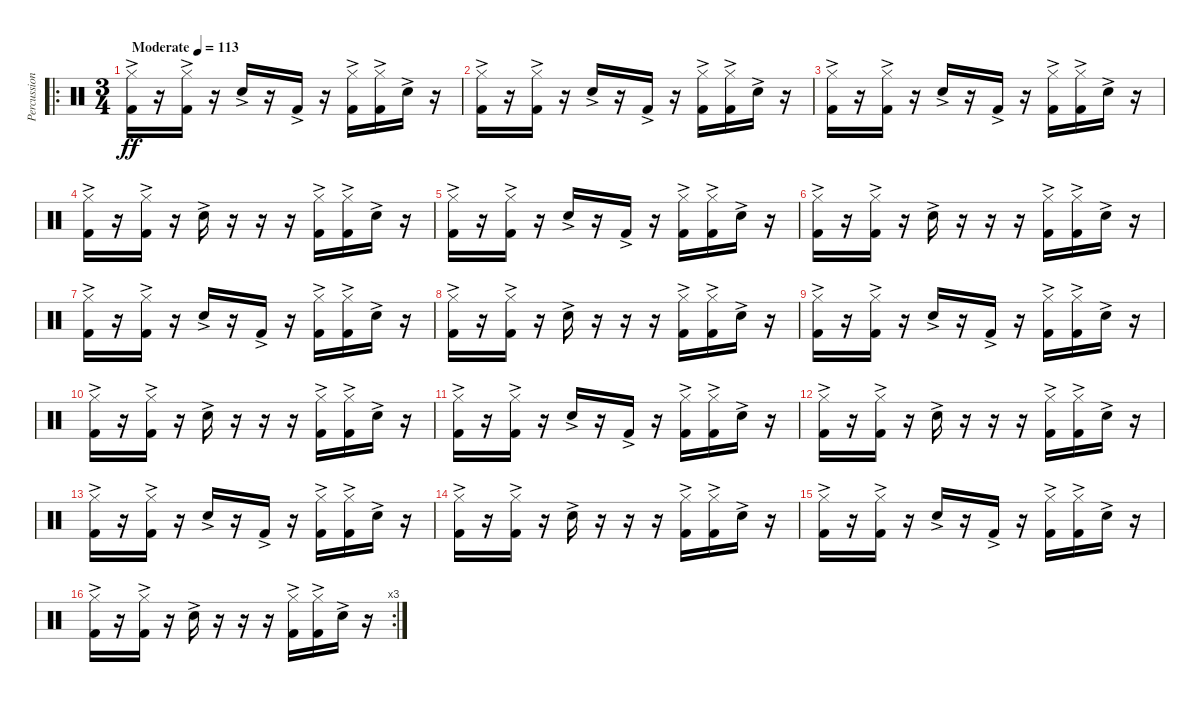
\track ("Percussion" "Percussion") {instrument percussion}
\staff {score}
\articulation defaults
\ro
\ts (3 4)
\tempo (113 "Moderate")
\clef neutral
\ks c
("Hi-Hat (closed)"{ac} "Kick (hit) 2"{ac}).16{dy ff} r.16 ("Hi-Hat (closed)"{ac} "Kick (hit) 2"{ac}).16 r.16 "Snare (hit) 2"{ac}.16 r.16 "Kick (hit) 2"{ac}.16 r.16 ("Hi-Hat (closed)"{ac} "Kick (hit) 2"{ac}).16 ("Hi-Hat (closed)"{ac} "Kick (hit) 2"{ac}).16 "Snare (hit) 2"{ac}.16 r.16 |
("Hi-Hat (closed)"{ac} "Kick (hit) 2"{ac}).16 r.16 ("Hi-Hat (closed)"{ac} "Kick (hit) 2"{ac}).16 r.16 "Snare (hit) 2"{ac}.16 r.16 "Kick (hit) 2"{ac}.16 r.16 ("Hi-Hat (closed)"{ac} "Kick (hit) 2"{ac}).16 ("Hi-Hat (closed)"{ac} "Kick (hit) 2"{ac}).16 "Snare (hit) 2"{ac}.16 r.16 |
("Hi-Hat (closed)"{ac} "Kick (hit) 2"{ac}).16 r.16 ("Hi-Hat (closed)"{ac} "Kick (hit) 2"{ac}).16 r.16 "Snare (hit) 2"{ac}.16 r.16 "Kick (hit) 2"{ac}.16 r.16 ("Hi-Hat (closed)"{ac} "Kick (hit) 2"{ac}).16 ("Hi-Hat (closed)"{ac} "Kick (hit) 2"{ac}).16 "Snare (hit) 2"{ac}.16 r.16 |
("Hi-Hat (closed)"{ac} "Kick (hit) 2"{ac}).16 r.16 ("Hi-Hat (closed)"{ac} "Kick (hit) 2"{ac}).16 r.16 "Snare (hit) 2"{ac}.16 r.16 r.16 r.16 ("Hi-Hat (closed)"{ac} "Kick (hit) 2"{ac}).16 ("Hi-Hat (closed)"{ac} "Kick (hit) 2"{ac}).16 "Snare (hit) 2"{ac}.16 r.16 |
("Hi-Hat (closed)"{ac} "Kick (hit) 2"{ac}).16 r.16 ("Hi-Hat (closed)"{ac} "Kick (hit) 2"{ac}).16 r.16 "Snare (hit) 2"{ac}.16 r.16 "Kick (hit) 2"{ac}.16 r.16 ("Hi-Hat (closed)"{ac} "Kick (hit) 2"{ac}).16 ("Hi-Hat (closed)"{ac} "Kick (hit) 2"{ac}).16 "Snare (hit) 2"{ac}.16 r.16 |
("Hi-Hat (closed)"{ac} "Kick (hit) 2"{ac}).16 r.16 ("Hi-Hat (closed)"{ac} "Kick (hit) 2"{ac}).16 r.16 "Snare (hit) 2"{ac}.16 r.16 r.16 r.16 ("Hi-Hat (closed)"{ac} "Kick (hit) 2"{ac}).16 ("Hi-Hat (closed)"{ac} "Kick (hit) 2"{ac}).16 "Snare (hit) 2"{ac}.16 r.16 |
("Hi-Hat (closed)"{ac} "Kick (hit) 2"{ac}).16 r.16 ("Hi-Hat (closed)"{ac} "Kick (hit) 2"{ac}).16 r.16 "Snare (hit) 2"{ac}.16 r.16 "Kick (hit) 2"{ac}.16 r.16 ("Hi-Hat (closed)"{ac} "Kick (hit) 2"{ac}).16 ("Hi-Hat (closed)"{ac} "Kick (hit) 2"{ac}).16 "Snare (hit) 2"{ac}.16 r.16 |
("Hi-Hat (closed)"{ac} "Kick (hit) 2"{ac}).16 r.16 ("Hi-Hat (closed)"{ac} "Kick (hit) 2"{ac}).16 r.16 "Snare (hit) 2"{ac}.16 r.16 r.16 r.16 ("Hi-Hat (closed)"{ac} "Kick (hit) 2"{ac}).16 ("Hi-Hat (closed)"{ac} "Kick (hit) 2"{ac}).16 "Snare (hit) 2"{ac}.16 r.16 |
("Hi-Hat (closed)"{ac} "Kick (hit) 2"{ac}).16 r.16 ("Hi-Hat (closed)"{ac} "Kick (hit) 2"{ac}).16 r.16 "Snare (hit) 2"{ac}.16 r.16 "Kick (hit) 2"{ac}.16 r.16 ("Hi-Hat (closed)"{ac} "Kick (hit) 2"{ac}).16 ("Hi-Hat (closed)"{ac} "Kick (hit) 2"{ac}).16 "Snare (hit) 2"{ac}.16 r.16 |
("Hi-Hat (closed)"{ac} "Kick (hit) 2"{ac}).16 r.16 ("Hi-Hat (closed)"{ac} "Kick (hit) 2"{ac}).16 r.16 "Snare (hit) 2"{ac}.16 r.16 r.16 r.16 ("Hi-Hat (closed)"{ac} "Kick (hit) 2"{ac}).16 ("Hi-Hat (closed)"{ac} "Kick (hit) 2"{ac}).16 "Snare (hit) 2"{ac}.16 r.16 |
("Hi-Hat (closed)"{ac} "Kick (hit) 2"{ac}).16 r.16 ("Hi-Hat (closed)"{ac} "Kick (hit) 2"{ac}).16 r.16 "Snare (hit) 2"{ac}.16 r.16 "Kick (hit) 2"{ac}.16 r.16 ("Hi-Hat (closed)"{ac} "Kick (hit) 2"{ac}).16 ("Hi-Hat (closed)"{ac} "Kick (hit) 2"{ac}).16 "Snare (hit) 2"{ac}.16 r.16 |
("Hi-Hat (closed)"{ac} "Kick (hit) 2"{ac}).16 r.16 ("Hi-Hat (closed)"{ac} "Kick (hit) 2"{ac}).16 r.16 "Snare (hit) 2"{ac}.16 r.16 r.16 r.16 ("Hi-Hat (closed)"{ac} "Kick (hit) 2"{ac}).16 ("Hi-Hat (closed)"{ac} "Kick (hit) 2"{ac}).16 "Snare (hit) 2"{ac}.16 r.16 |
("Hi-Hat (closed)"{ac} "Kick (hit) 2"{ac}).16 r.16 ("Hi-Hat (closed)"{ac} "Kick (hit) 2"{ac}).16 r.16 "Snare (hit) 2"{ac}.16 r.16 "Kick (hit) 2"{ac}.16 r.16 ("Hi-Hat (closed)"{ac} "Kick (hit) 2"{ac}).16 ("Hi-Hat (closed)"{ac} "Kick (hit) 2"{ac}).16 "Snare (hit) 2"{ac}.16 r.16 |
("Hi-Hat (closed)"{ac} "Kick (hit) 2"{ac}).16 r.16 ("Hi-Hat (closed)"{ac} "Kick (hit) 2"{ac}).16 r.16 "Snare (hit) 2"{ac}.16 r.16 r.16 r.16 ("Hi-Hat (closed)"{ac} "Kick (hit) 2"{ac}).16 ("Hi-Hat (closed)"{ac} "Kick (hit) 2"{ac}).16 "Snare (hit) 2"{ac}.16 r.16 |
("Hi-Hat (closed)"{ac} "Kick (hit) 2"{ac}).16 r.16 ("Hi-Hat (closed)"{ac} "Kick (hit) 2"{ac}).16 r.16 "Snare (hit) 2"{ac}.16 r.16 "Kick (hit) 2"{ac}.16 r.16 ("Hi-Hat (closed)"{ac} "Kick (hit) 2"{ac}).16 ("Hi-Hat (closed)"{ac} "Kick (hit) 2"{ac}).16 "Snare (hit) 2"{ac}.16 r.16 |
\rc 3
("Hi-Hat (closed)"{ac} "Kick (hit) 2"{ac}).16 r.16 ("Hi-Hat (closed)"{ac} "Kick (hit) 2"{ac}).16 r.16 "Snare (hit) 2"{ac}.16 r.16 r.16 r.16 ("Hi-Hat (closed)"{ac} "Kick (hit) 2"{ac}).16 ("Hi-Hat (closed)"{ac} "Kick (hit) 2"{ac}).16 "Snare (hit) 2"{ac}.16 r.16
